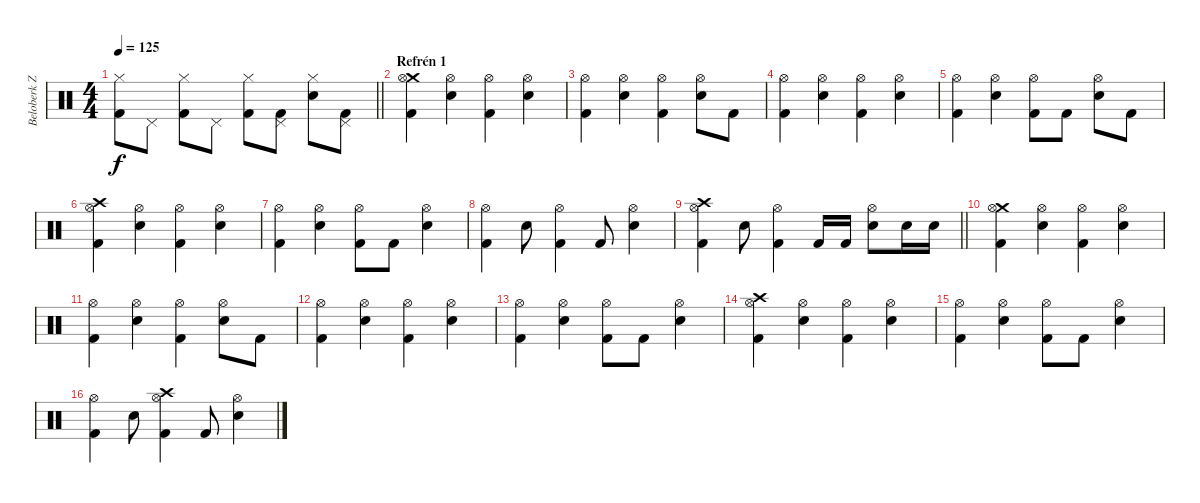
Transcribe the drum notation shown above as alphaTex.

\track ("Beloberk Zsolt - Dobok" "Beloberk Z") {instrument percussion}
\staff {score}
\articulation defaults
\ts (4 4)
\tempo 125
\clef neutral
\barLineRight lightlight
\ks c
("Hi-Hat (closed)" "Kick (hit) 2").8{dy f} "Pedal Hi-Hat (hit)".8 ("Hi-Hat (closed)" "Kick (hit) 2").8 "Pedal Hi-Hat (hit)".8 ("Hi-Hat (closed)" "Kick (hit) 2").8 ("Pedal Hi-Hat (hit)" "Kick (hit) 2").8 ("Hi-Hat (closed)" "Electric Snare (hit)").8 ("Pedal Hi-Hat (hit)" "Kick (hit) 2").8 |
\section ("" "Refrén 1")
("Crash medium (hit)" "Hi-Hat (open)" "Kick (hit) 2").4 ("Hi-Hat (open)" "Electric Snare (hit)").4 ("Hi-Hat (open)" "Kick (hit) 2").4 ("Hi-Hat (open)" "Electric Snare (hit)").4 |
("Hi-Hat (open)" "Kick (hit) 2").4 ("Hi-Hat (open)" "Electric Snare (hit)").4 ("Hi-Hat (open)" "Kick (hit) 2").4 ("Hi-Hat (open)" "Electric Snare (hit)").8 "Kick (hit) 2".8 |
("Hi-Hat (open)" "Kick (hit) 2").4 ("Hi-Hat (open)" "Electric Snare (hit)").4 ("Hi-Hat (open)" "Kick (hit) 2").4 ("Hi-Hat (open)" "Electric Snare (hit)").4 |
("Hi-Hat (open)" "Kick (hit) 2").4 ("Hi-Hat (open)" "Electric Snare (hit)").4 ("Hi-Hat (open)" "Kick (hit) 2").8 "Kick (hit) 2".8 ("Hi-Hat (open)" "Electric Snare (hit)").8 "Kick (hit) 2".8 |
("Crash high (hit)" "Hi-Hat (open)" "Kick (hit) 2").4 ("Hi-Hat (open)" "Electric Snare (hit)").4 ("Hi-Hat (open)" "Kick (hit) 2").4 ("Hi-Hat (open)" "Electric Snare (hit)").4 |
("Hi-Hat (open)" "Kick (hit) 2").4 ("Hi-Hat (open)" "Electric Snare (hit)").4 ("Hi-Hat (open)" "Kick (hit) 2").8 "Kick (hit) 2".8 ("Hi-Hat (open)" "Electric Snare (hit)").4 |
("Hi-Hat (open)" "Kick (hit) 2").4 "Electric Snare (hit)".8 ("Hi-Hat (open)" "Kick (hit) 2").4 "Kick (hit) 2".8 ("Hi-Hat (open)" "Electric Snare (hit)").4 |
\barLineRight lightlight
("Crash high (hit)" "Hi-Hat (open)" "Kick (hit) 2").4 "Electric Snare (hit)".8 ("Hi-Hat (open)" "Kick (hit) 2").4 "Kick (hit) 2".16 "Kick (hit) 2".16 ("Hi-Hat (open)" "Electric Snare (hit)").8 "Electric Snare (hit)".16 "Electric Snare (hit)".16 |
("Crash medium (hit)" "Hi-Hat (open)" "Kick (hit) 2").4 ("Hi-Hat (open)" "Electric Snare (hit)").4 ("Hi-Hat (open)" "Kick (hit) 2").4 ("Hi-Hat (open)" "Electric Snare (hit)").4 |
("Hi-Hat (open)" "Kick (hit) 2").4 ("Hi-Hat (open)" "Electric Snare (hit)").4 ("Hi-Hat (open)" "Kick (hit) 2").4 ("Hi-Hat (open)" "Electric Snare (hit)").8 "Kick (hit) 2".8 |
("Hi-Hat (open)" "Kick (hit) 2").4 ("Hi-Hat (open)" "Electric Snare (hit)").4 ("Hi-Hat (open)" "Kick (hit) 2").4 ("Hi-Hat (open)" "Electric Snare (hit)").4 |
("Hi-Hat (open)" "Kick (hit) 2").4 ("Hi-Hat (open)" "Electric Snare (hit)").4 ("Hi-Hat (open)" "Kick (hit) 2").8 "Kick (hit) 2".8 ("Hi-Hat (open)" "Electric Snare (hit)").4 |
("Crash high (hit)" "Hi-Hat (open)" "Kick (hit) 2").4 ("Hi-Hat (open)" "Electric Snare (hit)").4 ("Hi-Hat (open)" "Kick (hit) 2").4 ("Hi-Hat (open)" "Electric Snare (hit)").4 |
("Hi-Hat (open)" "Kick (hit) 2").4 ("Hi-Hat (open)" "Electric Snare (hit)").4 ("Hi-Hat (open)" "Kick (hit) 2").8 "Kick (hit) 2".8 ("Hi-Hat (open)" "Electric Snare (hit)").4 |
("Hi-Hat (open)" "Kick (hit) 2").4 "Electric Snare (hit)".8 ("Crash high (hit)" "Hi-Hat (open)" "Kick (hit) 2").4 "Kick (hit) 2".8 ("Hi-Hat (open)" "Electric Snare (hit)").4
